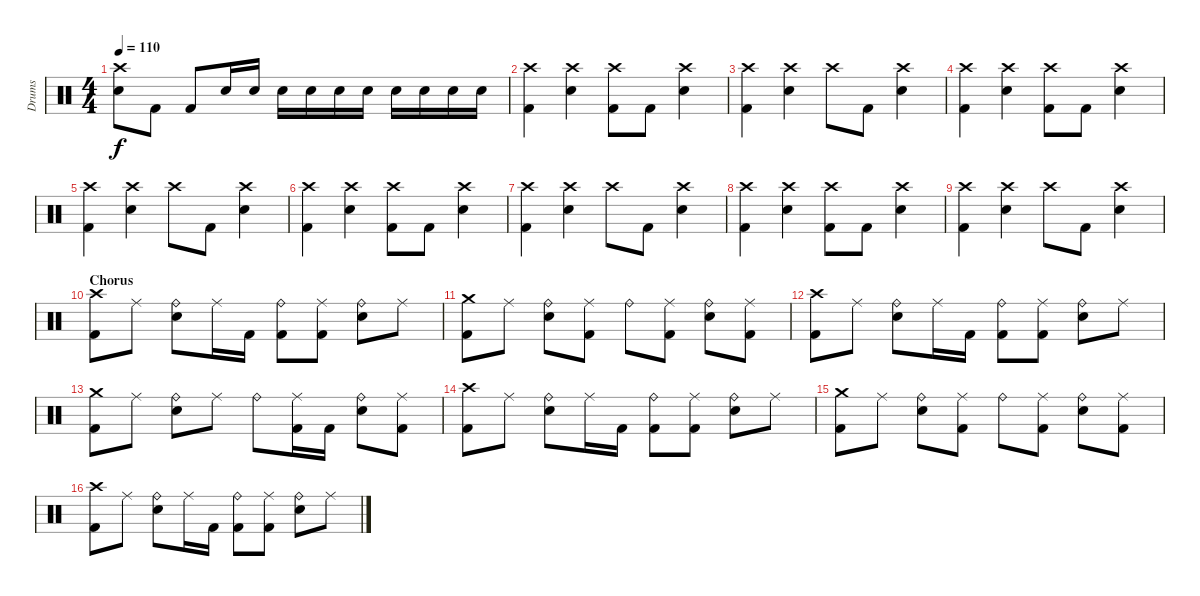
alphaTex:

\track ("Drums" "Drums") {instrument percussion}
\staff {score}
\articulation defaults
\ts (4 4)
\tempo 110
\clef neutral
\ks c
("Crash high (hit)" "Electric Snare (hit)").8{dy f} "Kick (hit) 2".8 "Kick (hit) 2".8 "Electric Snare (hit)".16 "Electric Snare (hit)".16 "Electric Snare (hit)".16 "Electric Snare (hit)".16 "Electric Snare (hit)".16 "Electric Snare (hit)".16 "Electric Snare (hit)".16 "Electric Snare (hit)".16 "Electric Snare (hit)".16 "Electric Snare (hit)".16 |
("Crash high (hit)" "Kick (hit) 2").4 ("Crash high (hit)" "Electric Snare (hit)").4 ("Crash high (hit)" "Kick (hit) 2").8 "Kick (hit) 2".8 ("Crash high (hit)" "Electric Snare (hit)").4 |
("Crash high (hit)" "Kick (hit) 2").4 ("Crash high (hit)" "Electric Snare (hit)").4 "Crash high (hit)".8 "Kick (hit) 2".8 ("Crash high (hit)" "Electric Snare (hit)").4 |
("Crash high (hit)" "Kick (hit) 2").4 ("Crash high (hit)" "Electric Snare (hit)").4 ("Crash high (hit)" "Kick (hit) 2").8 "Kick (hit) 2".8 ("Crash high (hit)" "Electric Snare (hit)").4 |
("Crash high (hit)" "Kick (hit) 2").4 ("Crash high (hit)" "Electric Snare (hit)").4 "Crash high (hit)".8 "Kick (hit) 2".8 ("Crash high (hit)" "Electric Snare (hit)").4 |
("Crash high (hit)" "Kick (hit) 2").4 ("Crash high (hit)" "Electric Snare (hit)").4 ("Crash high (hit)" "Kick (hit) 2").8 "Kick (hit) 2".8 ("Crash high (hit)" "Electric Snare (hit)").4 |
("Crash high (hit)" "Kick (hit) 2").4 ("Crash high (hit)" "Electric Snare (hit)").4 "Crash high (hit)".8 "Kick (hit) 2".8 ("Crash high (hit)" "Electric Snare (hit)").4 |
("Crash high (hit)" "Kick (hit) 2").4 ("Crash high (hit)" "Electric Snare (hit)").4 ("Crash high (hit)" "Kick (hit) 2").8 "Kick (hit) 2".8 ("Crash high (hit)" "Electric Snare (hit)").4 |
("Crash high (hit)" "Kick (hit) 2").4 ("Crash high (hit)" "Electric Snare (hit)").4 "Crash high (hit)".8 "Kick (hit) 2".8 ("Crash high (hit)" "Electric Snare (hit)").4 |
\section ("" "Chorus")
("Crash high (hit)" "Kick (hit) 2").8 "Ride (middle)".8 ("Ride (bell)" "Electric Snare (hit)").8 "Ride (middle)".16 "Kick (hit) 2".16 ("Ride (bell)" "Kick (hit) 2").8 ("Ride (middle)" "Kick (hit) 2").8 ("Ride (bell)" "Electric Snare (hit)").8 "Ride (middle)".8 |
("Crash medium (hit)" "Kick (hit) 2").8 "Ride (middle)".8 ("Ride (bell)" "Electric Snare (hit)").8 ("Ride (middle)" "Kick (hit) 2").8 "Ride (bell)".8 ("Ride (middle)" "Kick (hit) 2").8 ("Ride (bell)" "Electric Snare (hit)").8 ("Ride (middle)" "Kick (hit) 2").8 |
("Crash high (hit)" "Kick (hit) 2").8 "Ride (middle)".8 ("Ride (bell)" "Electric Snare (hit)").8 "Ride (middle)".16 "Kick (hit) 2".16 ("Ride (bell)" "Kick (hit) 2").8 ("Ride (middle)" "Kick (hit) 2").8 ("Ride (bell)" "Electric Snare (hit)").8 "Ride (middle)".8 |
("Crash medium (hit)" "Kick (hit) 2").8 "Ride (middle)".8 ("Ride (bell)" "Electric Snare (hit)").8 "Ride (middle)".8 "Ride (bell)".8 ("Ride (middle)" "Kick (hit) 2").16 "Kick (hit) 2".16 ("Ride (bell)" "Electric Snare (hit)").8 ("Ride (middle)" "Kick (hit) 2").8 |
("Crash high (hit)" "Kick (hit) 2").8 "Ride (middle)".8 ("Ride (bell)" "Electric Snare (hit)").8 "Ride (middle)".16 "Kick (hit) 2".16 ("Ride (bell)" "Kick (hit) 2").8 ("Ride (middle)" "Kick (hit) 2").8 ("Ride (bell)" "Electric Snare (hit)").8 "Ride (middle)".8 |
("Crash medium (hit)" "Kick (hit) 2").8 "Ride (middle)".8 ("Ride (bell)" "Electric Snare (hit)").8 ("Ride (middle)" "Kick (hit) 2").8 "Ride (bell)".8 ("Ride (middle)" "Kick (hit) 2").8 ("Ride (bell)" "Electric Snare (hit)").8 ("Ride (middle)" "Kick (hit) 2").8 |
("Crash high (hit)" "Kick (hit) 2").8 "Ride (middle)".8 ("Ride (bell)" "Electric Snare (hit)").8 "Ride (middle)".16 "Kick (hit) 2".16 ("Ride (bell)" "Kick (hit) 2").8 ("Ride (middle)" "Kick (hit) 2").8 ("Ride (bell)" "Electric Snare (hit)").8 "Ride (middle)".8
